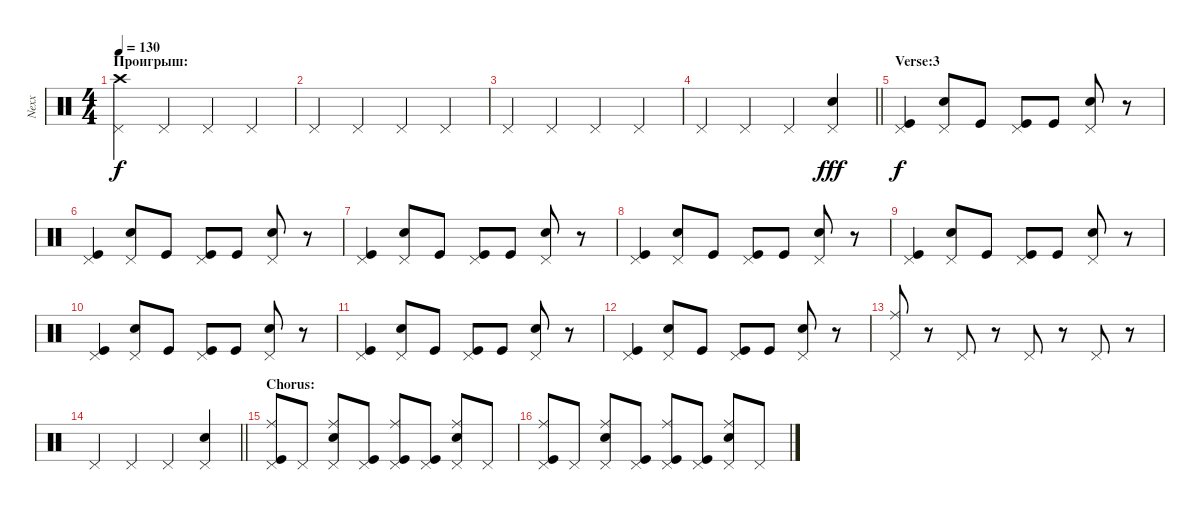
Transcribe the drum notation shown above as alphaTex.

\track ("Nexx" "Nexx") {instrument percussion}
\staff {score}
\articulation defaults
\ts (4 4)
\section ("" "Проигрыш:")
\tempo 130
\clef neutral
\ks c
("Crash high (hit)" "Pedal Hi-Hat (hit)").4{dy f} "Pedal Hi-Hat (hit)".4 "Pedal Hi-Hat (hit)".4 "Pedal Hi-Hat (hit)".4 |
"Pedal Hi-Hat (hit)".4 "Pedal Hi-Hat (hit)".4 "Pedal Hi-Hat (hit)".4 "Pedal Hi-Hat (hit)".4 |
"Pedal Hi-Hat (hit)".4 "Pedal Hi-Hat (hit)".4 "Pedal Hi-Hat (hit)".4 "Pedal Hi-Hat (hit)".4 |
\barLineRight lightlight "Pedal Hi-Hat (hit)".4 "Pedal Hi-Hat (hit)".4 "Pedal Hi-Hat (hit)".4
("Electric Snare (hit)" "Pedal Hi-Hat (hit)").4{dy fff} |
\section ("" "Verse:3")
("Pedal Hi-Hat (hit)" "Kick (hit)").4{dy f} ("Pedal Hi-Hat (hit)" "Electric Snare (hit)").8 "Kick (hit)".8 ("Pedal Hi-Hat (hit)" "Kick (hit)").8 "Kick (hit)".8 ("Pedal Hi-Hat (hit)" "Electric Snare (hit)").8 r.8 |
("Pedal Hi-Hat (hit)" "Kick (hit)").4 ("Pedal Hi-Hat (hit)" "Electric Snare (hit)").8 "Kick (hit)".8 ("Pedal Hi-Hat (hit)" "Kick (hit)").8 "Kick (hit)".8 ("Pedal Hi-Hat (hit)" "Electric Snare (hit)").8 r.8 |
("Pedal Hi-Hat (hit)" "Kick (hit)").4 ("Pedal Hi-Hat (hit)" "Electric Snare (hit)").8 "Kick (hit)".8 ("Pedal Hi-Hat (hit)" "Kick (hit)").8 "Kick (hit)".8 ("Pedal Hi-Hat (hit)" "Electric Snare (hit)").8 r.8 |
("Pedal Hi-Hat (hit)" "Kick (hit)").4 ("Pedal Hi-Hat (hit)" "Electric Snare (hit)").8 "Kick (hit)".8 ("Pedal Hi-Hat (hit)" "Kick (hit)").8 "Kick (hit)".8 ("Pedal Hi-Hat (hit)" "Electric Snare (hit)").8 r.8 |
("Pedal Hi-Hat (hit)" "Kick (hit)").4 ("Pedal Hi-Hat (hit)" "Electric Snare (hit)").8 "Kick (hit)".8 ("Pedal Hi-Hat (hit)" "Kick (hit)").8 "Kick (hit)".8 ("Pedal Hi-Hat (hit)" "Electric Snare (hit)").8 r.8 |
("Pedal Hi-Hat (hit)" "Kick (hit)").4 ("Pedal Hi-Hat (hit)" "Electric Snare (hit)").8 "Kick (hit)".8 ("Pedal Hi-Hat (hit)" "Kick (hit)").8 "Kick (hit)".8 ("Pedal Hi-Hat (hit)" "Electric Snare (hit)").8 r.8 |
("Pedal Hi-Hat (hit)" "Kick (hit)").4 ("Pedal Hi-Hat (hit)" "Electric Snare (hit)").8 "Kick (hit)".8 ("Pedal Hi-Hat (hit)" "Kick (hit)").8 "Kick (hit)".8 ("Pedal Hi-Hat (hit)" "Electric Snare (hit)").8 r.8 |
("Pedal Hi-Hat (hit)" "Kick (hit)").4 ("Pedal Hi-Hat (hit)" "Electric Snare (hit)").8 "Kick (hit)".8 ("Pedal Hi-Hat (hit)" "Kick (hit)").8 "Kick (hit)".8 ("Pedal Hi-Hat (hit)" "Electric Snare (hit)").8 r.8 |
("Pedal Hi-Hat (hit)" "Ride (middle)").8 r.8 "Pedal Hi-Hat (hit)".8 r.8 "Pedal Hi-Hat (hit)".8 r.8 "Pedal Hi-Hat (hit)".8 r.8 |
\barLineRight lightlight "Pedal Hi-Hat (hit)".4 "Pedal Hi-Hat (hit)".4 "Pedal Hi-Hat (hit)".4
("Electric Snare (hit)" "Pedal Hi-Hat (hit)").4 |
\section ("" "Chorus:")
("Ride (middle)" "Pedal Hi-Hat (hit)" "Kick (hit)").8 "Pedal Hi-Hat (hit)".8 ("Ride (middle)" "Pedal Hi-Hat (hit)" "Electric Snare (hit)").8 ("Pedal Hi-Hat (hit)" "Kick (hit)").8 ("Ride (middle)" "Pedal Hi-Hat (hit)" "Kick (hit)").8 ("Pedal Hi-Hat (hit)" "Kick (hit)").8 ("Ride (middle)" "Pedal Hi-Hat (hit)" "Electric Snare (hit)").8 "Pedal Hi-Hat (hit)".8 |
("Ride (middle)" "Pedal Hi-Hat (hit)" "Kick (hit)").8 "Pedal Hi-Hat (hit)".8 ("Ride (middle)" "Pedal Hi-Hat (hit)" "Electric Snare (hit)").8 ("Pedal Hi-Hat (hit)" "Kick (hit)").8 ("Ride (middle)" "Pedal Hi-Hat (hit)" "Kick (hit)").8 ("Pedal Hi-Hat (hit)" "Kick (hit)").8 ("Ride (middle)" "Pedal Hi-Hat (hit)" "Electric Snare (hit)").8 "Pedal Hi-Hat (hit)".8
